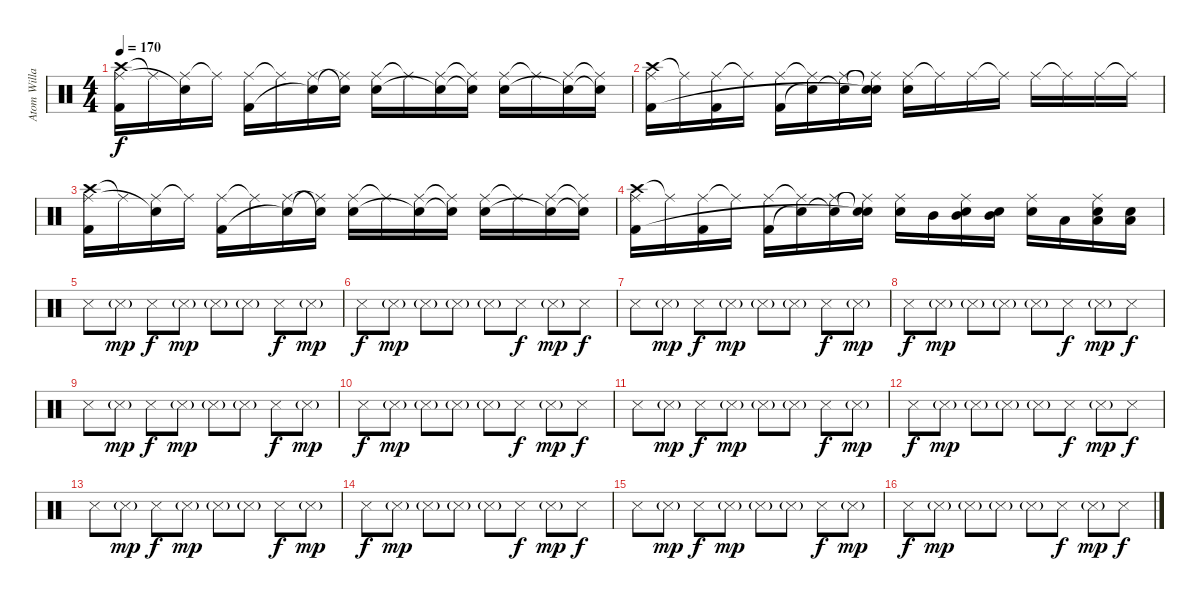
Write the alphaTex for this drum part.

\track ("Atom Willard" "Atom Willa") {instrument percussion}
\staff {score}
\articulation defaults
\ts (4 4)
\tempo 170
\clef neutral
\ks c
("Crash high (hit)" "Ride (middle)" "Kick (hit) 2").16{dy f} "Ride (middle)"{t}.16 ("Ride (middle)" "Snare (hit)"{t}).16 "Ride (middle)"{t}.16 ("Ride (middle)" "Kick (hit) 2").16 "Ride (middle)"{t}.16 ("Ride (middle)" "Snare (hit)"{t}).16 ("Snare (hit)"{t} "Ride (middle)"{t}).16 ("Ride (middle)" "Electric Snare (hit)").16 "Ride (middle)"{t}.16 ("Ride (middle)" "Electric Snare (hit)"{t}).16 ("Ride (middle)"{t} "Snare (hit)"{t}).16 ("Ride (middle)" "Electric Snare (hit)").16 "Ride (middle)"{t}.16 ("Ride (middle)" "Snare (hit)"{t}).16 ("Ride (middle)"{t} "Snare (hit)"{t}).16 |
("Crash high (hit)" "Ride (middle)" "Kick (hit) 2").16 "Ride (middle)"{t}.16 ("Ride (middle)" "Kick (hit) 2").16 "Ride (middle)"{t}.16 ("Ride (middle)" "Kick (hit) 2").16 ("Ride (middle)"{t} "Snare (hit)"{t}).16 ("Ride (middle)" "Snare (hit)"{t}).16 ("Snare (hit)"{t} "Ride (middle)"{t} "Snare (hit)"{t}).16 ("Ride (middle)" "Electric Snare (hit)").16 "Ride (middle)"{t}.16 "Ride (middle)".16 "Ride (middle)"{t}.16 "Ride (middle)".16 "Ride (middle)"{t}.16 "Ride (middle)".16 "Ride (middle)"{t}.16 |
("Crash high (hit)" "Ride (middle)" "Kick (hit) 2").16 "Ride (middle)"{t}.16 ("Ride (middle)" "Snare (hit)"{t}).16 "Ride (middle)"{t}.16 ("Ride (middle)" "Kick (hit) 2").16 "Ride (middle)"{t}.16 ("Ride (middle)" "Snare (hit)"{t}).16 ("Snare (hit)"{t} "Ride (middle)"{t}).16 ("Ride (middle)" "Electric Snare (hit)").16 "Ride (middle)"{t}.16 ("Ride (middle)" "Electric Snare (hit)"{t}).16 ("Ride (middle)"{t} "Snare (hit)"{t}).16 ("Ride (middle)" "Electric Snare (hit)").16 "Ride (middle)"{t}.16 ("Ride (middle)" "Snare (hit)"{t}).16 ("Ride (middle)"{t} "Snare (hit)"{t}).16 |
("Crash high (hit)" "Ride (middle)" "Kick (hit) 2").16 "Ride (middle)"{t}.16 ("Ride (middle)" "Kick (hit) 2").16 "Ride (middle)"{t}.16 ("Ride (middle)" "Kick (hit) 2").16 ("Ride (middle)"{t} "Snare (hit)"{t}).16 ("Ride (middle)" "Snare (hit)"{t}).16 ("Snare (hit)"{t} "Ride (middle)"{t} "Snare (hit)"{t}).16 ("Ride (middle)" "Electric Snare (hit)").16 "Mid Tom (hit)".16 ("Ride (middle)" "Electric Snare (hit)" "Mid Tom (hit)").16 ("Electric Snare (hit)" "Mid Tom (hit)").16 ("Ride (middle)" "Electric Snare (hit)").16 "Low Tom (hit)".16 ("Ride (middle)" "Electric Snare (hit)" "Low Tom (hit)").16 ("Electric Snare (hit)" "Low Tom (hit)").16 |
"Snare (side stick) 3".8 "Snare (side stick) 3"{g}.8{dy mp} "Snare (side stick) 3".8{dy f} "Snare (side stick) 3"{g}.8{dy mp} "Snare (side stick) 3"{g}.8 "Snare (side stick) 3"{g}.8 "Snare (side stick) 3".8{dy f} "Snare (side stick) 3"{g}.8{dy mp} |
"Snare (side stick) 3".8{dy f} "Snare (side stick) 3"{g}.8{dy mp} "Snare (side stick) 3"{g}.8 "Snare (side stick) 3"{g}.8 "Snare (side stick) 3"{g}.8 "Snare (side stick) 3".8{dy f} "Snare (side stick) 3"{g}.8{dy mp} "Snare (side stick) 3".8{dy f} |
"Snare (side stick) 3".8 "Snare (side stick) 3"{g}.8{dy mp} "Snare (side stick) 3".8{dy f} "Snare (side stick) 3"{g}.8{dy mp} "Snare (side stick) 3"{g}.8 "Snare (side stick) 3"{g}.8 "Snare (side stick) 3".8{dy f} "Snare (side stick) 3"{g}.8{dy mp} |
"Snare (side stick) 3".8{dy f} "Snare (side stick) 3"{g}.8{dy mp} "Snare (side stick) 3"{g}.8 "Snare (side stick) 3"{g}.8 "Snare (side stick) 3"{g}.8 "Snare (side stick) 3".8{dy f} "Snare (side stick) 3"{g}.8{dy mp} "Snare (side stick) 3".8{dy f} |
"Snare (side stick) 3".8 "Snare (side stick) 3"{g}.8{dy mp} "Snare (side stick) 3".8{dy f} "Snare (side stick) 3"{g}.8{dy mp} "Snare (side stick) 3"{g}.8 "Snare (side stick) 3"{g}.8 "Snare (side stick) 3".8{dy f} "Snare (side stick) 3"{g}.8{dy mp} |
"Snare (side stick) 3".8{dy f} "Snare (side stick) 3"{g}.8{dy mp} "Snare (side stick) 3"{g}.8 "Snare (side stick) 3"{g}.8 "Snare (side stick) 3"{g}.8 "Snare (side stick) 3".8{dy f} "Snare (side stick) 3"{g}.8{dy mp} "Snare (side stick) 3".8{dy f} |
"Snare (side stick) 3".8 "Snare (side stick) 3"{g}.8{dy mp} "Snare (side stick) 3".8{dy f} "Snare (side stick) 3"{g}.8{dy mp} "Snare (side stick) 3"{g}.8 "Snare (side stick) 3"{g}.8 "Snare (side stick) 3".8{dy f} "Snare (side stick) 3"{g}.8{dy mp} |
"Snare (side stick) 3".8{dy f} "Snare (side stick) 3"{g}.8{dy mp} "Snare (side stick) 3"{g}.8 "Snare (side stick) 3"{g}.8 "Snare (side stick) 3"{g}.8 "Snare (side stick) 3".8{dy f} "Snare (side stick) 3"{g}.8{dy mp} "Snare (side stick) 3".8{dy f} |
"Snare (side stick) 3".8 "Snare (side stick) 3"{g}.8{dy mp} "Snare (side stick) 3".8{dy f} "Snare (side stick) 3"{g}.8{dy mp} "Snare (side stick) 3"{g}.8 "Snare (side stick) 3"{g}.8 "Snare (side stick) 3".8{dy f} "Snare (side stick) 3"{g}.8{dy mp} |
"Snare (side stick) 3".8{dy f} "Snare (side stick) 3"{g}.8{dy mp} "Snare (side stick) 3"{g}.8 "Snare (side stick) 3"{g}.8 "Snare (side stick) 3"{g}.8 "Snare (side stick) 3".8{dy f} "Snare (side stick) 3"{g}.8{dy mp} "Snare (side stick) 3".8{dy f} |
"Snare (side stick) 3".8 "Snare (side stick) 3"{g}.8{dy mp} "Snare (side stick) 3".8{dy f} "Snare (side stick) 3"{g}.8{dy mp} "Snare (side stick) 3"{g}.8 "Snare (side stick) 3"{g}.8 "Snare (side stick) 3".8{dy f} "Snare (side stick) 3"{g}.8{dy mp} |
"Snare (side stick) 3".8{dy f} "Snare (side stick) 3"{g}.8{dy mp} "Snare (side stick) 3"{g}.8 "Snare (side stick) 3"{g}.8 "Snare (side stick) 3"{g}.8 "Snare (side stick) 3".8{dy f} "Snare (side stick) 3"{g}.8{dy mp} "Snare (side stick) 3".8{dy f}
